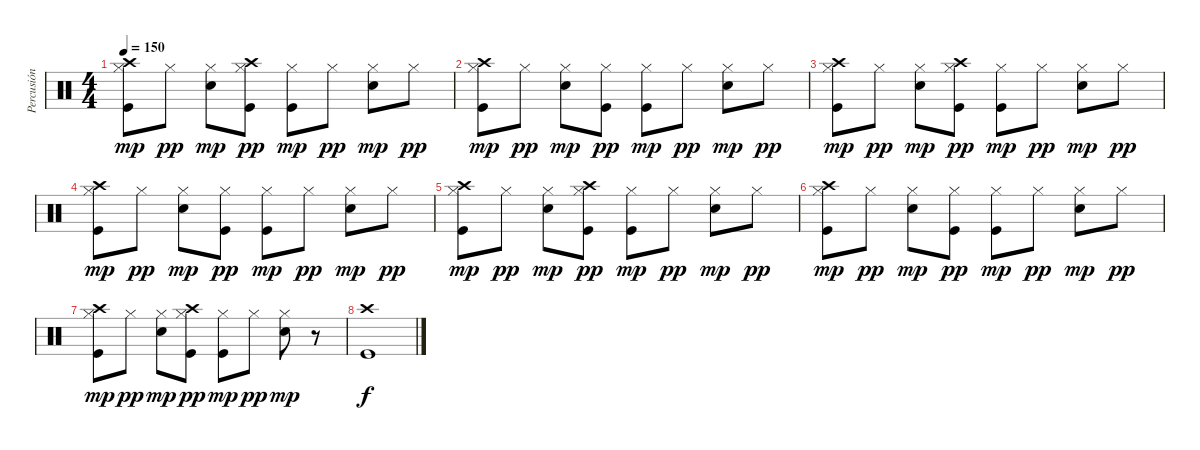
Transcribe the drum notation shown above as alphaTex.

\track ("Percusión" "Percusión") {instrument percussion}
\staff {score}
\articulation defaults
\ts (4 4)
\tempo 150
\clef neutral
\ks c
("Crash high (hit)" "Hi-Hat (closed)" "Kick (hit)").8{dy mp} "Hi-Hat (closed)".8{dy pp} ("Hi-Hat (closed)" "Snare (hit) 2").8{dy mp} ("Crash high (hit)" "Hi-Hat (closed)" "Kick (hit)").8{dy pp} ("Hi-Hat (closed)" "Kick (hit)").8{dy mp} "Hi-Hat (closed)".8{dy pp} ("Hi-Hat (closed)" "Snare (hit) 2").8{dy mp} "Hi-Hat (closed)".8{dy pp} |
("Crash high (hit)" "Hi-Hat (closed)" "Kick (hit)").8{dy mp} "Hi-Hat (closed)".8{dy pp} ("Hi-Hat (closed)" "Snare (hit) 2").8{dy mp} ("Hi-Hat (closed)" "Kick (hit)").8{dy pp} ("Hi-Hat (closed)" "Kick (hit)").8{dy mp} "Hi-Hat (closed)".8{dy pp} ("Hi-Hat (closed)" "Snare (hit) 2").8{dy mp} "Hi-Hat (closed)".8{dy pp} |
("Crash high (hit)" "Hi-Hat (closed)" "Kick (hit)").8{dy mp} "Hi-Hat (closed)".8{dy pp} ("Hi-Hat (closed)" "Snare (hit) 2").8{dy mp} ("Crash high (hit)" "Hi-Hat (closed)" "Kick (hit)").8{dy pp} ("Hi-Hat (closed)" "Kick (hit)").8{dy mp} "Hi-Hat (closed)".8{dy pp} ("Hi-Hat (closed)" "Snare (hit) 2").8{dy mp} "Hi-Hat (closed)".8{dy pp} |
("Crash high (hit)" "Hi-Hat (closed)" "Kick (hit)").8{dy mp} "Hi-Hat (closed)".8{dy pp} ("Hi-Hat (closed)" "Snare (hit) 2").8{dy mp} ("Hi-Hat (closed)" "Kick (hit)").8{dy pp} ("Hi-Hat (closed)" "Kick (hit)").8{dy mp} "Hi-Hat (closed)".8{dy pp} ("Hi-Hat (closed)" "Snare (hit) 2").8{dy mp} "Hi-Hat (closed)".8{dy pp} |
("Crash high (hit)" "Hi-Hat (closed)" "Kick (hit)").8{dy mp} "Hi-Hat (closed)".8{dy pp} ("Hi-Hat (closed)" "Snare (hit) 2").8{dy mp} ("Crash high (hit)" "Hi-Hat (closed)" "Kick (hit)").8{dy pp} ("Hi-Hat (closed)" "Kick (hit)").8{dy mp} "Hi-Hat (closed)".8{dy pp} ("Hi-Hat (closed)" "Snare (hit) 2").8{dy mp} "Hi-Hat (closed)".8{dy pp} |
("Crash high (hit)" "Hi-Hat (closed)" "Kick (hit)").8{dy mp} "Hi-Hat (closed)".8{dy pp} ("Hi-Hat (closed)" "Snare (hit) 2").8{dy mp} ("Hi-Hat (closed)" "Kick (hit)").8{dy pp} ("Hi-Hat (closed)" "Kick (hit)").8{dy mp} "Hi-Hat (closed)".8{dy pp} ("Hi-Hat (closed)" "Snare (hit) 2").8{dy mp} "Hi-Hat (closed)".8{dy pp} |
("Crash high (hit)" "Hi-Hat (closed)" "Kick (hit)").8{dy mp} "Hi-Hat (closed)".8{dy pp} ("Hi-Hat (closed)" "Snare (hit) 2").8{dy mp} ("Crash high (hit)" "Hi-Hat (closed)" "Kick (hit)").8{dy pp} ("Hi-Hat (closed)" "Kick (hit)").8{dy mp} "Hi-Hat (closed)".8{dy pp} ("Hi-Hat (closed)" "Snare (hit) 2").8{dy mp} r.8 |
("Crash high (hit)" "Kick (hit)").1{dy f}
